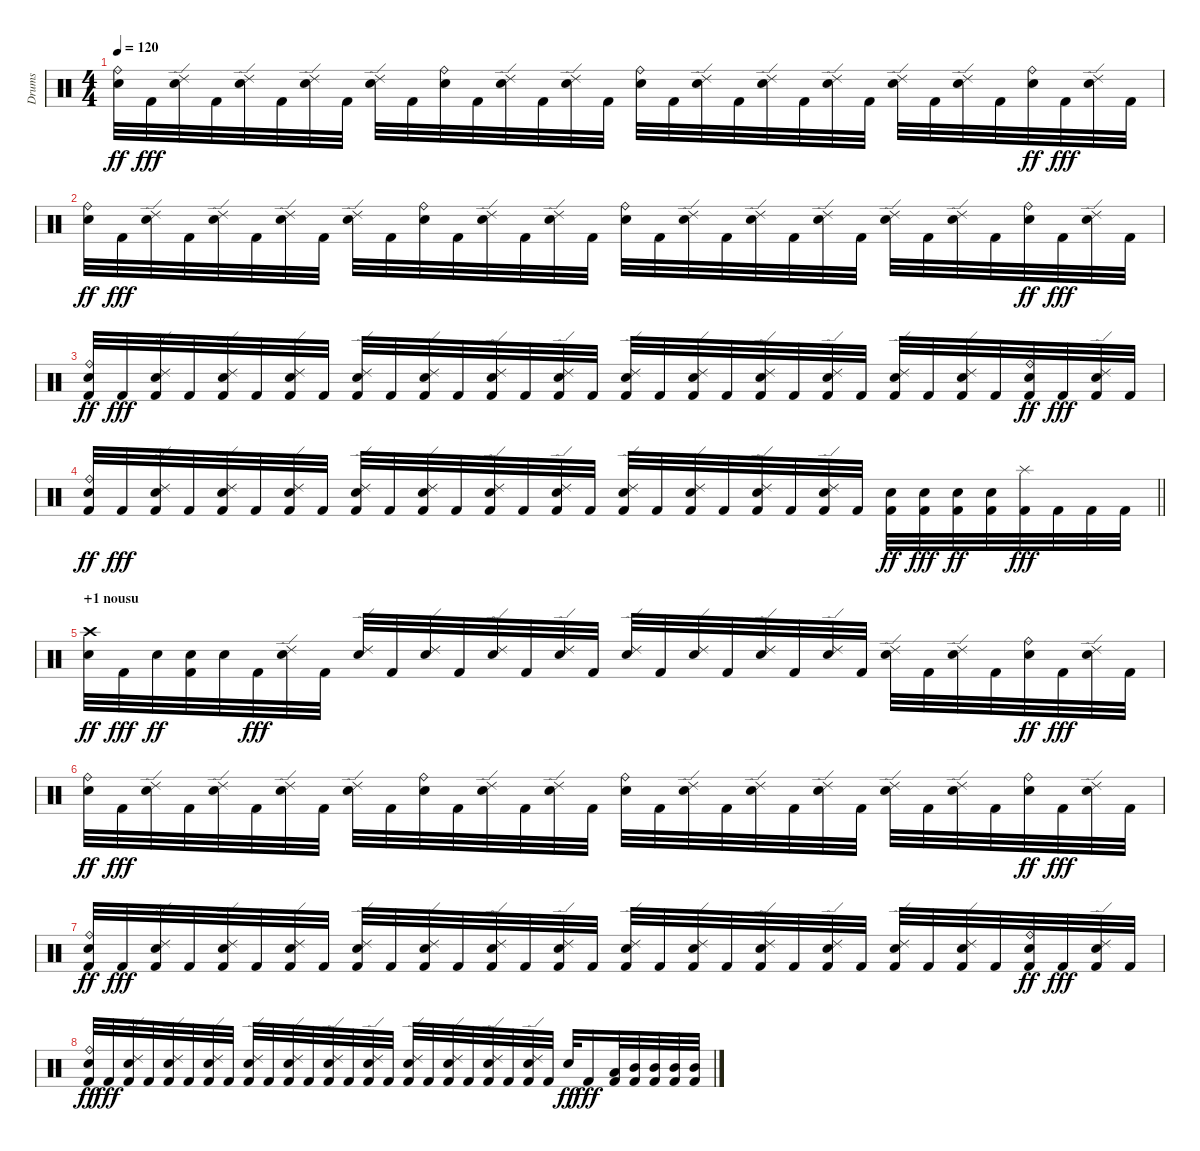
\track ("Drums" "Drums") {instrument percussion}
\staff {score}
\articulation defaults
\ts (4 4)
\tempo 120
\clef neutral
\ks c
("Snare (hit) 2" "Ride (bell)").32{dy ff} "Kick (hit) 2".32{dy fff} ("Snare (hit) 2" "Ride (edge) 2").32 "Kick (hit) 2".32 ("Snare (hit) 2" "Ride (edge) 2").32 "Kick (hit) 2".32 ("Snare (hit) 2" "Ride (edge) 2").32 "Kick (hit) 2".32 ("Snare (hit) 2" "Ride (edge) 2").32 "Kick (hit) 2".32 ("Snare (hit) 2" "Ride (bell)").32 "Kick (hit) 2".32 ("Snare (hit) 2" "Ride (edge) 2").32 "Kick (hit) 2".32 ("Snare (hit) 2" "Ride (edge) 2").32 "Kick (hit) 2".32 ("Snare (hit) 2" "Ride (bell)").32 "Kick (hit) 2".32 ("Snare (hit) 2" "Ride (edge) 2").32 "Kick (hit) 2".32 ("Snare (hit) 2" "Ride (edge) 2").32 "Kick (hit) 2".32 ("Snare (hit) 2" "Ride (edge) 2").32 "Kick (hit) 2".32 ("Snare (hit) 2" "Ride (edge) 2").32 "Kick (hit) 2".32 ("Snare (hit) 2" "Ride (edge) 2").32 "Kick (hit) 2".32 ("Snare (hit) 2" "Ride (bell)").32{dy ff} "Kick (hit) 2".32{dy fff} ("Snare (hit) 2" "Ride (edge) 2").32 "Kick (hit) 2".32 |
("Snare (hit) 2" "Ride (bell)").32{dy ff} "Kick (hit) 2".32{dy fff} ("Snare (hit) 2" "Ride (edge) 2").32 "Kick (hit) 2".32 ("Snare (hit) 2" "Ride (edge) 2").32 "Kick (hit) 2".32 ("Snare (hit) 2" "Ride (edge) 2").32 "Kick (hit) 2".32 ("Snare (hit) 2" "Ride (edge) 2").32 "Kick (hit) 2".32 ("Snare (hit) 2" "Ride (bell)").32 "Kick (hit) 2".32 ("Snare (hit) 2" "Ride (edge) 2").32 "Kick (hit) 2".32 ("Snare (hit) 2" "Ride (edge) 2").32 "Kick (hit) 2".32 ("Snare (hit) 2" "Ride (bell)").32 "Kick (hit) 2".32 ("Snare (hit) 2" "Ride (edge) 2").32 "Kick (hit) 2".32 ("Snare (hit) 2" "Ride (edge) 2").32 "Kick (hit) 2".32 ("Snare (hit) 2" "Ride (edge) 2").32 "Kick (hit) 2".32 ("Snare (hit) 2" "Ride (edge) 2").32 "Kick (hit) 2".32 ("Snare (hit) 2" "Ride (edge) 2").32 "Kick (hit) 2".32 ("Snare (hit) 2" "Ride (bell)").32{dy ff} "Kick (hit) 2".32{dy fff} ("Snare (hit) 2" "Ride (edge) 2").32 "Kick (hit) 2".32 |
("Kick (hit) 2" "Snare (hit) 2" "Ride (bell)").32{dy ff} "Kick (hit) 2".32{dy fff} ("Kick (hit) 2" "Snare (hit) 2" "Ride (edge) 2").32 "Kick (hit) 2".32 ("Kick (hit) 2" "Snare (hit) 2" "Ride (edge) 2").32 "Kick (hit) 2".32 ("Kick (hit) 2" "Snare (hit) 2" "Ride (edge) 2").32 "Kick (hit) 2".32 ("Kick (hit) 2" "Snare (hit) 2" "Ride (edge) 2").32 "Kick (hit) 2".32 ("Kick (hit) 2" "Snare (hit) 2" "Ride (edge) 2").32 "Kick (hit) 2".32 ("Kick (hit) 2" "Snare (hit) 2" "Ride (edge) 2").32 "Kick (hit) 2".32 ("Kick (hit) 2" "Snare (hit) 2" "Ride (edge) 2").32 "Kick (hit) 2".32 ("Kick (hit) 2" "Snare (hit) 2" "Ride (edge) 2").32 "Kick (hit) 2".32 ("Kick (hit) 2" "Snare (hit) 2" "Ride (edge) 2").32 "Kick (hit) 2".32 ("Kick (hit) 2" "Snare (hit) 2" "Ride (edge) 2").32 "Kick (hit) 2".32 ("Kick (hit) 2" "Snare (hit) 2" "Ride (edge) 2").32 "Kick (hit) 2".32 ("Kick (hit) 2" "Snare (hit) 2" "Ride (edge) 2").32 "Kick (hit) 2".32 ("Kick (hit) 2" "Snare (hit) 2" "Ride (edge) 2").32 "Kick (hit) 2".32 ("Kick (hit) 2" "Snare (hit) 2" "Ride (bell)").32{dy ff} "Kick (hit) 2".32{dy fff} ("Kick (hit) 2" "Snare (hit) 2" "Ride (edge) 2").32 "Kick (hit) 2".32 |
\barLineRight lightlight
("Kick (hit) 2" "Snare (hit) 2" "Ride (bell)").32{dy ff} "Kick (hit) 2".32{dy fff} ("Kick (hit) 2" "Snare (hit) 2" "Ride (edge) 2").32 "Kick (hit) 2".32 ("Kick (hit) 2" "Snare (hit) 2" "Ride (edge) 2").32 "Kick (hit) 2".32 ("Kick (hit) 2" "Snare (hit) 2" "Ride (edge) 2").32 "Kick (hit) 2".32 ("Kick (hit) 2" "Snare (hit) 2" "Ride (edge) 2").32 "Kick (hit) 2".32 ("Kick (hit) 2" "Snare (hit) 2" "Ride (edge) 2").32 "Kick (hit) 2".32 ("Kick (hit) 2" "Snare (hit) 2" "Ride (edge) 2").32 "Kick (hit) 2".32 ("Kick (hit) 2" "Snare (hit) 2" "Ride (edge) 2").32 "Kick (hit) 2".32 ("Kick (hit) 2" "Snare (hit) 2" "Ride (edge) 2").32 "Kick (hit) 2".32 ("Kick (hit) 2" "Snare (hit) 2" "Ride (edge) 2").32 "Kick (hit) 2".32 ("Kick (hit) 2" "Snare (hit) 2" "Ride (edge) 2").32 "Kick (hit) 2".32 ("Kick (hit) 2" "Snare (hit) 2" "Ride (edge) 2").32 "Kick (hit) 2".32 ("Kick (hit) 2" "Snare (hit) 2").32{dy ff} ("Kick (hit) 2" "Snare (hit) 2").32{dy fff} ("Kick (hit) 2" "Snare (hit) 2").32{dy ff} ("Kick (hit) 2" "Snare (hit) 2").32 ("Kick (hit) 2" "Splash (hit)").32{dy fff} "Kick (hit) 2".32 "Kick (hit) 2".32 "Kick (hit) 2".32 |
\section ("" "+1 nousu")
("Snare (hit) 2" "Crash high (hit)").32{dy ff} "Kick (hit) 2".32{dy fff} "Snare (hit) 2".32{dy ff} ("Kick (hit) 2" "Snare (hit) 2").32 "Snare (hit) 2".32 "Kick (hit) 2".32{dy fff} ("Snare (hit) 2" "Ride (edge) 2").32 "Kick (hit) 2".32 ("Snare (hit) 2" "Ride (edge) 2").32 "Kick (hit) 2".32 ("Snare (hit) 2" "Ride (edge) 2").32 "Kick (hit) 2".32 ("Snare (hit) 2" "Ride (edge) 2").32 "Kick (hit) 2".32 ("Snare (hit) 2" "Ride (edge) 2").32 "Kick (hit) 2".32 ("Snare (hit) 2" "Ride (edge) 2").32 "Kick (hit) 2".32 ("Snare (hit) 2" "Ride (edge) 2").32 "Kick (hit) 2".32 ("Snare (hit) 2" "Ride (edge) 2").32 "Kick (hit) 2".32 ("Snare (hit) 2" "Ride (edge) 2").32 "Kick (hit) 2".32 ("Snare (hit) 2" "Ride (edge) 2").32 "Kick (hit) 2".32 ("Snare (hit) 2" "Ride (edge) 2").32 "Kick (hit) 2".32 ("Snare (hit) 2" "Ride (bell)").32{dy ff} "Kick (hit) 2".32{dy fff} ("Snare (hit) 2" "Ride (edge) 2").32 "Kick (hit) 2".32 |
("Snare (hit) 2" "Ride (bell)").32{dy ff} "Kick (hit) 2".32{dy fff} ("Snare (hit) 2" "Ride (edge) 2").32 "Kick (hit) 2".32 ("Snare (hit) 2" "Ride (edge) 2").32 "Kick (hit) 2".32 ("Snare (hit) 2" "Ride (edge) 2").32 "Kick (hit) 2".32 ("Snare (hit) 2" "Ride (edge) 2").32 "Kick (hit) 2".32 ("Snare (hit) 2" "Ride (bell)").32 "Kick (hit) 2".32 ("Snare (hit) 2" "Ride (edge) 2").32 "Kick (hit) 2".32 ("Snare (hit) 2" "Ride (edge) 2").32 "Kick (hit) 2".32 ("Snare (hit) 2" "Ride (bell)").32 "Kick (hit) 2".32 ("Snare (hit) 2" "Ride (edge) 2").32 "Kick (hit) 2".32 ("Snare (hit) 2" "Ride (edge) 2").32 "Kick (hit) 2".32 ("Snare (hit) 2" "Ride (edge) 2").32 "Kick (hit) 2".32 ("Snare (hit) 2" "Ride (edge) 2").32 "Kick (hit) 2".32 ("Snare (hit) 2" "Ride (edge) 2").32 "Kick (hit) 2".32 ("Snare (hit) 2" "Ride (bell)").32{dy ff} "Kick (hit) 2".32{dy fff} ("Snare (hit) 2" "Ride (edge) 2").32 "Kick (hit) 2".32 |
("Kick (hit) 2" "Snare (hit) 2" "Ride (bell)").32{dy ff} "Kick (hit) 2".32{dy fff} ("Kick (hit) 2" "Snare (hit) 2" "Ride (edge) 2").32 "Kick (hit) 2".32 ("Kick (hit) 2" "Snare (hit) 2" "Ride (edge) 2").32 "Kick (hit) 2".32 ("Kick (hit) 2" "Snare (hit) 2" "Ride (edge) 2").32 "Kick (hit) 2".32 ("Kick (hit) 2" "Snare (hit) 2" "Ride (edge) 2").32 "Kick (hit) 2".32 ("Kick (hit) 2" "Snare (hit) 2" "Ride (edge) 2").32 "Kick (hit) 2".32 ("Kick (hit) 2" "Snare (hit) 2" "Ride (edge) 2").32 "Kick (hit) 2".32 ("Kick (hit) 2" "Snare (hit) 2" "Ride (edge) 2").32 "Kick (hit) 2".32 ("Kick (hit) 2" "Snare (hit) 2" "Ride (edge) 2").32 "Kick (hit) 2".32 ("Kick (hit) 2" "Snare (hit) 2" "Ride (edge) 2").32 "Kick (hit) 2".32 ("Kick (hit) 2" "Snare (hit) 2" "Ride (edge) 2").32 "Kick (hit) 2".32 ("Kick (hit) 2" "Snare (hit) 2" "Ride (edge) 2").32 "Kick (hit) 2".32 ("Kick (hit) 2" "Snare (hit) 2" "Ride (edge) 2").32 "Kick (hit) 2".32 ("Kick (hit) 2" "Snare (hit) 2" "Ride (edge) 2").32 "Kick (hit) 2".32 ("Kick (hit) 2" "Snare (hit) 2" "Ride (bell)").32{dy ff} "Kick (hit) 2".32{dy fff} ("Kick (hit) 2" "Snare (hit) 2" "Ride (edge) 2").32 "Kick (hit) 2".32 |
("Kick (hit) 2" "Snare (hit) 2" "Ride (bell)").32{dy ff} "Kick (hit) 2".32{dy fff} ("Kick (hit) 2" "Snare (hit) 2" "Ride (edge) 2").32 "Kick (hit) 2".32 ("Kick (hit) 2" "Snare (hit) 2" "Ride (edge) 2").32 "Kick (hit) 2".32 ("Kick (hit) 2" "Snare (hit) 2" "Ride (edge) 2").32 "Kick (hit) 2".32 ("Kick (hit) 2" "Snare (hit) 2" "Ride (edge) 2").32 "Kick (hit) 2".32 ("Kick (hit) 2" "Snare (hit) 2" "Ride (edge) 2").32 "Kick (hit) 2".32 ("Kick (hit) 2" "Snare (hit) 2" "Ride (edge) 2").32 "Kick (hit) 2".32 ("Kick (hit) 2" "Snare (hit) 2" "Ride (edge) 2").32 "Kick (hit) 2".32 ("Kick (hit) 2" "Snare (hit) 2" "Ride (edge) 2").32 "Kick (hit) 2".32 ("Kick (hit) 2" "Snare (hit) 2" "Ride (edge) 2").32 "Kick (hit) 2".32 ("Kick (hit) 2" "Snare (hit) 2" "Ride (edge) 2").32 "Kick (hit) 2".32 ("Kick (hit) 2" "Snare (hit) 2" "Ride (edge) 2").32 "Kick (hit) 2".32 "Snare (hit) 2".32{dy ff} "Kick (hit) 2".16{dy fff} ("Kick (hit) 2" "Low Tom (hit)").32 ("Kick (hit) 2" "Mid Tom (hit)").32 ("Kick (hit) 2" "Mid Tom (hit)").32 ("Kick (hit) 2" "Mid Tom (hit)").32 ("Kick (hit) 2" "Mid Tom (hit)").32
